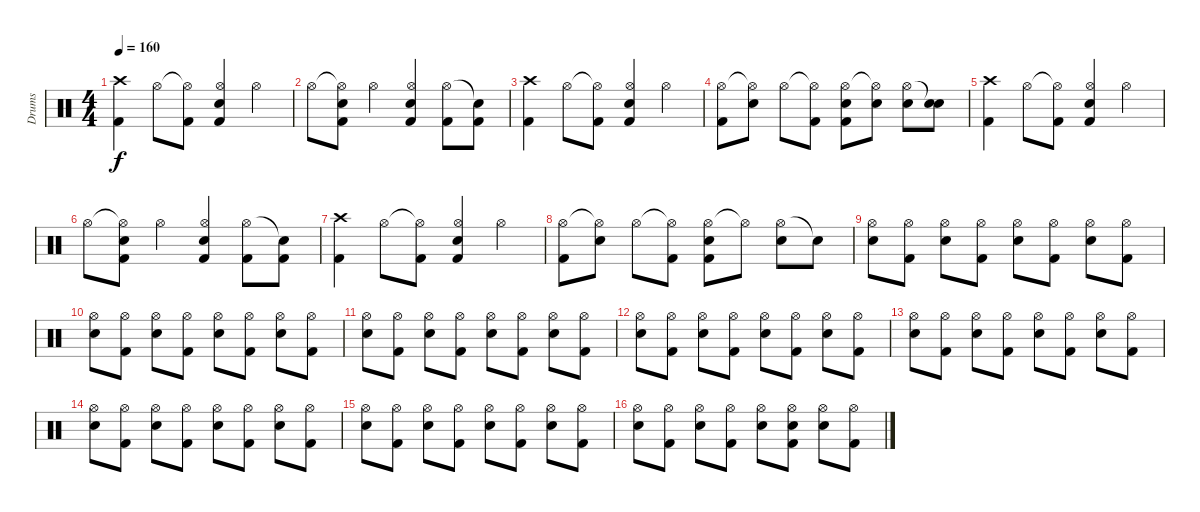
\track ("Drums" "Drums") {instrument percussion}
\staff {score}
\articulation defaults
\ts (4 4)
\tempo 160
\clef neutral
\ks c
("Crash high (hit)" "Kick (hit) 2").4{dy f} "Hi-Hat (open)".8 ("Hi-Hat (open)"{t} "Kick (hit) 2").8 ("Hi-Hat (open)" "Snare (hit) 2" "Kick (hit) 2").4 "Hi-Hat (open)".4 |
"Hi-Hat (open)".8 ("Hi-Hat (open)"{t} "Snare (hit) 2" "Kick (hit) 2").8 "Hi-Hat (open)".4 ("Hi-Hat (open)" "Snare (hit) 2" "Kick (hit) 2").4 ("Hi-Hat (open)" "Kick (hit) 2").8 ("Snare (hit)"{t} "Kick (hit) 2").8 |
("Crash high (hit)" "Kick (hit) 2").4 "Hi-Hat (open)".8 ("Hi-Hat (open)"{t} "Kick (hit) 2").8 ("Hi-Hat (open)" "Snare (hit) 2" "Kick (hit) 2").4 "Hi-Hat (open)".4 |
("Hi-Hat (open)" "Kick (hit) 2").8 ("Hi-Hat (open)"{t} "Snare (hit) 2").8 "Hi-Hat (open)".8 ("Hi-Hat (open)"{t} "Kick (hit) 2").8 ("Hi-Hat (open)" "Snare (hit) 2" "Kick (hit) 2").8 ("Hi-Hat (open)"{t} "Snare (hit) 2").8 ("Hi-Hat (open)" "Snare (hit) 2").8 ("Snare (hit)"{t} "Snare (hit) 2").8 |
("Crash high (hit)" "Kick (hit) 2").4 "Hi-Hat (open)".8 ("Hi-Hat (open)"{t} "Kick (hit) 2").8 ("Hi-Hat (open)" "Snare (hit) 2" "Kick (hit) 2").4 "Hi-Hat (open)".4 |
"Hi-Hat (open)".8 ("Hi-Hat (open)"{t} "Snare (hit) 2" "Kick (hit) 2").8 "Hi-Hat (open)".4 ("Hi-Hat (open)" "Snare (hit) 2" "Kick (hit) 2").4 ("Hi-Hat (open)" "Kick (hit) 2").8 ("Snare (hit)"{t} "Kick (hit) 2").8 |
("Crash high (hit)" "Kick (hit) 2").4 "Hi-Hat (open)".8 ("Hi-Hat (open)"{t} "Kick (hit) 2").8 ("Hi-Hat (open)" "Snare (hit) 2" "Kick (hit) 2").4 "Hi-Hat (open)".4 |
("Hi-Hat (open)" "Kick (hit) 2").8 ("Hi-Hat (open)"{t} "Snare (hit) 2").8 "Hi-Hat (open)".8 ("Hi-Hat (open)"{t} "Kick (hit) 2").8 ("Hi-Hat (open)" "Snare (hit) 2" "Kick (hit) 2").8 "Hi-Hat (open)"{t}.8 ("Hi-Hat (open)" "Snare (hit) 2"{tr (38 32)}).8 "Snare (hit)"{t}.8 |
("Hi-Hat (open)" "Snare (hit) 2").8 ("Hi-Hat (open)" "Kick (hit) 2").8 ("Hi-Hat (open)" "Snare (hit) 2").8 ("Hi-Hat (open)" "Kick (hit) 2").8 ("Hi-Hat (open)" "Snare (hit) 2").8 ("Hi-Hat (open)" "Kick (hit) 2").8 ("Hi-Hat (open)" "Snare (hit) 2").8 ("Hi-Hat (open)" "Kick (hit) 2").8 |
("Hi-Hat (open)" "Snare (hit) 2").8 ("Hi-Hat (open)" "Kick (hit) 2").8 ("Hi-Hat (open)" "Snare (hit) 2").8 ("Hi-Hat (open)" "Kick (hit) 2").8 ("Hi-Hat (open)" "Snare (hit) 2").8 ("Hi-Hat (open)" "Kick (hit) 2").8 ("Hi-Hat (open)" "Snare (hit) 2").8 ("Hi-Hat (open)" "Kick (hit) 2").8 |
("Hi-Hat (open)" "Snare (hit) 2").8 ("Hi-Hat (open)" "Kick (hit) 2").8 ("Hi-Hat (open)" "Snare (hit) 2").8 ("Hi-Hat (open)" "Kick (hit) 2").8 ("Hi-Hat (open)" "Snare (hit) 2").8 ("Hi-Hat (open)" "Kick (hit) 2").8 ("Hi-Hat (open)" "Snare (hit) 2").8 ("Hi-Hat (open)" "Kick (hit) 2").8 |
("Hi-Hat (open)" "Snare (hit) 2").8 ("Hi-Hat (open)" "Kick (hit) 2").8 ("Hi-Hat (open)" "Snare (hit) 2").8 ("Hi-Hat (open)" "Kick (hit) 2").8 ("Hi-Hat (open)" "Snare (hit) 2").8 ("Hi-Hat (open)" "Kick (hit) 2").8 ("Hi-Hat (open)" "Snare (hit) 2").8 ("Hi-Hat (open)" "Kick (hit) 2").8 |
("Hi-Hat (open)" "Snare (hit) 2").8 ("Hi-Hat (open)" "Kick (hit) 2").8 ("Hi-Hat (open)" "Snare (hit) 2").8 ("Hi-Hat (open)" "Kick (hit) 2").8 ("Hi-Hat (open)" "Snare (hit) 2").8 ("Hi-Hat (open)" "Kick (hit) 2").8 ("Hi-Hat (open)" "Snare (hit) 2").8 ("Hi-Hat (open)" "Kick (hit) 2").8 |
("Hi-Hat (open)" "Snare (hit) 2").8 ("Hi-Hat (open)" "Kick (hit) 2").8 ("Hi-Hat (open)" "Snare (hit) 2").8 ("Hi-Hat (open)" "Kick (hit) 2").8 ("Hi-Hat (open)" "Snare (hit) 2").8 ("Hi-Hat (open)" "Kick (hit) 2").8 ("Hi-Hat (open)" "Snare (hit) 2").8 ("Hi-Hat (open)" "Kick (hit) 2").8 |
("Hi-Hat (open)" "Snare (hit) 2").8 ("Hi-Hat (open)" "Kick (hit) 2").8 ("Hi-Hat (open)" "Snare (hit) 2").8 ("Hi-Hat (open)" "Kick (hit) 2").8 ("Hi-Hat (open)" "Snare (hit) 2").8 ("Hi-Hat (open)" "Kick (hit) 2").8 ("Hi-Hat (open)" "Snare (hit) 2").8 ("Hi-Hat (open)" "Kick (hit) 2").8 |
("Hi-Hat (open)" "Snare (hit) 2").8 ("Hi-Hat (open)" "Kick (hit) 2").8 ("Hi-Hat (open)" "Snare (hit) 2").8 ("Hi-Hat (open)" "Kick (hit) 2").8 ("Hi-Hat (open)" "Snare (hit) 2").8 ("Hi-Hat (open)" "Snare (hit) 2"{tr (38 32)} "Kick (hit) 2").8 ("Hi-Hat (open)" "Snare (hit) 2").8 ("Hi-Hat (open)" "Kick (hit) 2").8
